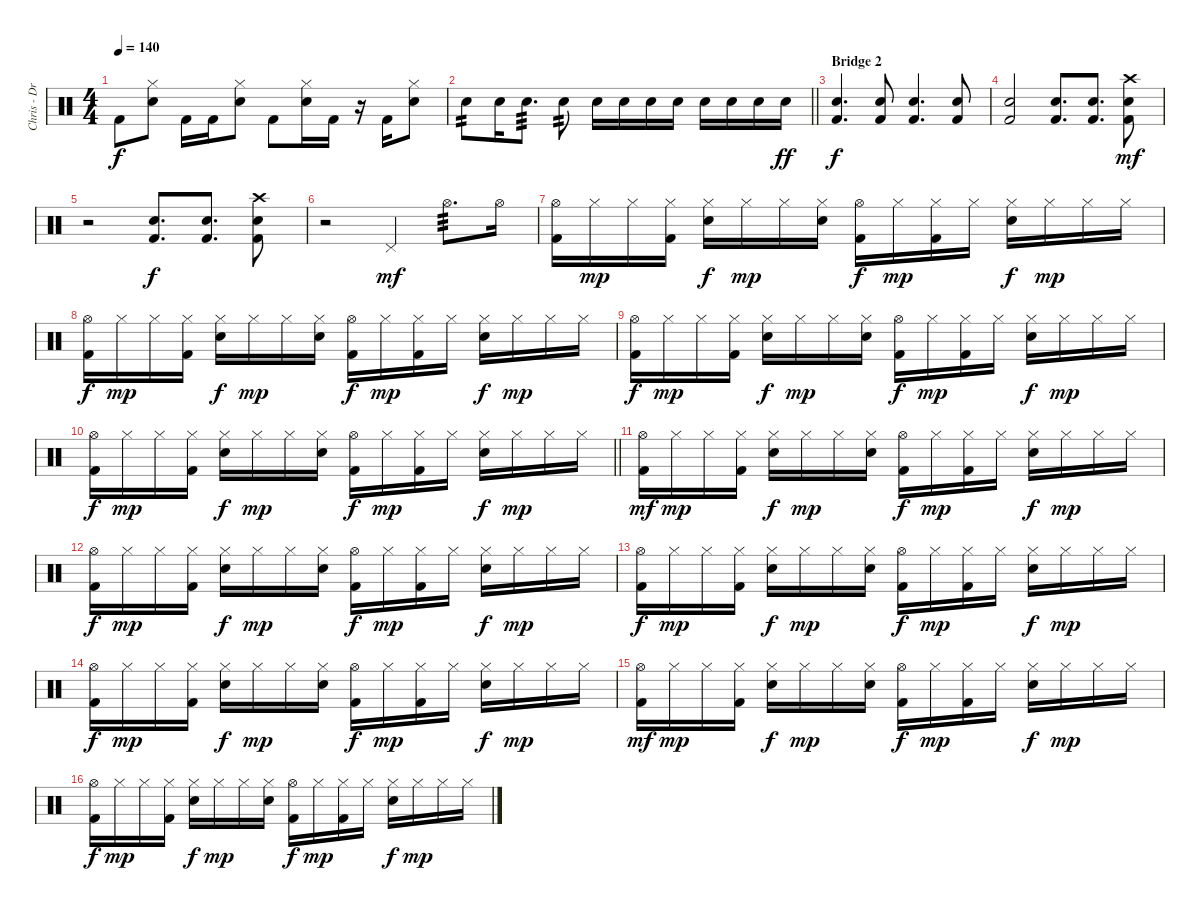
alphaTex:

\track ("Chris - Drums" "Chris - Dr") {instrument percussion}
\staff {score}
\articulation defaults
\ts (4 4)
\tempo 140
\clef neutral
\ks c "Kick (hit) 2".8{dy f}
("Hi-Hat (closed)" "Electric Snare (hit)").8 "Kick (hit) 2".16 "Kick (hit) 2".16 ("Hi-Hat (closed)" "Electric Snare (hit)").8 "Kick (hit) 2".8 ("Hi-Hat (closed)" "Electric Snare (hit)").16 "Kick (hit) 2".16 r.16 "Kick (hit) 2".16 ("Hi-Hat (closed)" "Electric Snare (hit)").8 |
\barLineRight lightlight "Electric Snare (hit)".8{tp 2 volume 12} "Electric Snare (hit)".16 "Electric Snare (hit)".8{d tp 3} "Electric Snare (hit)".8{tp 2} "Electric Snare (hit)".16 "Electric Snare (hit)".16 "Electric Snare (hit)".16 "Electric Snare (hit)".16 "Electric Snare (hit)".16 "Electric Snare (hit)".16 "Electric Snare (hit)".16 "Electric Snare (hit)".16{dy ff}
|
\section ("" "Bridge 2")
("Electric Snare (hit)" "Kick (hit) 2").4{d dy f volume 14} ("Electric Snare (hit)" "Kick (hit) 2").8 ("Electric Snare (hit)" "Kick (hit) 2").4{d} ("Electric Snare (hit)" "Kick (hit) 2").8 |
("Electric Snare (hit)" "Kick (hit) 2").2 ("Electric Snare (hit)" "Kick (hit) 2").8{d} ("Electric Snare (hit)" "Kick (hit) 2").8{d} ("Crash high (hit)" "Electric Snare (hit)" "Kick (hit) 2").8{dy mf} |
r.2 ("Electric Snare (hit)" "Kick (hit) 2").8{d dy f} ("Electric Snare (hit)" "Kick (hit) 2").8{d} ("Crash high (hit)" "Electric Snare (hit)" "Kick (hit) 2").8 |
r.2 "Pedal Hi-Hat (hit)".4{dy mf} "Hi-Hat (open)".8{d tp 3} "Hi-Hat (open)".16 |
("Hi-Hat (open)" "Kick (hit) 2").16 "Hi-Hat (closed)".16{dy mp} "Hi-Hat (closed)".16 ("Hi-Hat (closed)" "Kick (hit) 2").16 ("Hi-Hat (closed)" "Electric Snare (hit)").16{dy f} "Hi-Hat (closed)".16{dy mp} "Hi-Hat (closed)".16 ("Hi-Hat (closed)" "Electric Snare (hit)").16 ("Hi-Hat (open)" "Kick (hit) 2").16{dy f} "Hi-Hat (closed)".16{dy mp} ("Hi-Hat (closed)" "Kick (hit) 2").16 "Hi-Hat (closed)".16 ("Hi-Hat (closed)" "Electric Snare (hit)").16{dy f} "Hi-Hat (closed)".16{dy mp} "Hi-Hat (closed)".16 "Hi-Hat (closed)".16 |
("Hi-Hat (open)" "Kick (hit) 2").16{dy f} "Hi-Hat (closed)".16{dy mp} "Hi-Hat (closed)".16 ("Hi-Hat (closed)" "Kick (hit) 2").16 ("Hi-Hat (closed)" "Electric Snare (hit)").16{dy f} "Hi-Hat (closed)".16{dy mp} "Hi-Hat (closed)".16 ("Hi-Hat (closed)" "Electric Snare (hit)").16 ("Hi-Hat (open)" "Kick (hit) 2").16{dy f} "Hi-Hat (closed)".16{dy mp} ("Hi-Hat (closed)" "Kick (hit) 2").16 "Hi-Hat (closed)".16 ("Hi-Hat (closed)" "Electric Snare (hit)").16{dy f} "Hi-Hat (closed)".16{dy mp} "Hi-Hat (closed)".16 "Hi-Hat (closed)".16 |
("Hi-Hat (open)" "Kick (hit) 2").16{dy f} "Hi-Hat (closed)".16{dy mp} "Hi-Hat (closed)".16 ("Hi-Hat (closed)" "Kick (hit) 2").16 ("Hi-Hat (closed)" "Electric Snare (hit)").16{dy f} "Hi-Hat (closed)".16{dy mp} "Hi-Hat (closed)".16 ("Hi-Hat (closed)" "Electric Snare (hit)").16 ("Hi-Hat (open)" "Kick (hit) 2").16{dy f} "Hi-Hat (closed)".16{dy mp} ("Hi-Hat (closed)" "Kick (hit) 2").16 "Hi-Hat (closed)".16 ("Hi-Hat (closed)" "Electric Snare (hit)").16{dy f} "Hi-Hat (closed)".16{dy mp} "Hi-Hat (closed)".16 "Hi-Hat (closed)".16 |
\barLineRight lightlight
("Hi-Hat (open)" "Kick (hit) 2").16{dy f} "Hi-Hat (closed)".16{dy mp} "Hi-Hat (closed)".16 ("Hi-Hat (closed)" "Kick (hit) 2").16 ("Hi-Hat (closed)" "Electric Snare (hit)").16{dy f} "Hi-Hat (closed)".16{dy mp} "Hi-Hat (closed)".16 ("Hi-Hat (closed)" "Electric Snare (hit)").16 ("Hi-Hat (open)" "Kick (hit) 2").16{dy f} "Hi-Hat (closed)".16{dy mp} ("Hi-Hat (closed)" "Kick (hit) 2").16 "Hi-Hat (closed)".16 ("Hi-Hat (closed)" "Electric Snare (hit)").16{dy f} "Hi-Hat (closed)".16{dy mp} "Hi-Hat (closed)".16 "Hi-Hat (closed)".16 |
("Hi-Hat (open)" "Kick (hit) 2").16{dy mf} "Hi-Hat (closed)".16{dy mp} "Hi-Hat (closed)".16 ("Hi-Hat (closed)" "Kick (hit) 2").16 ("Hi-Hat (closed)" "Electric Snare (hit)").16{dy f} "Hi-Hat (closed)".16{dy mp} "Hi-Hat (closed)".16 ("Hi-Hat (closed)" "Electric Snare (hit)").16 ("Hi-Hat (open)" "Kick (hit) 2").16{dy f} "Hi-Hat (closed)".16{dy mp} ("Hi-Hat (closed)" "Kick (hit) 2").16 "Hi-Hat (closed)".16 ("Hi-Hat (closed)" "Electric Snare (hit)").16{dy f} "Hi-Hat (closed)".16{dy mp} "Hi-Hat (closed)".16 "Hi-Hat (closed)".16 |
("Hi-Hat (open)" "Kick (hit) 2").16{dy f} "Hi-Hat (closed)".16{dy mp} "Hi-Hat (closed)".16 ("Hi-Hat (closed)" "Kick (hit) 2").16 ("Hi-Hat (closed)" "Electric Snare (hit)").16{dy f} "Hi-Hat (closed)".16{dy mp} "Hi-Hat (closed)".16 ("Hi-Hat (closed)" "Electric Snare (hit)").16 ("Hi-Hat (open)" "Kick (hit) 2").16{dy f} "Hi-Hat (closed)".16{dy mp} ("Hi-Hat (closed)" "Kick (hit) 2").16 "Hi-Hat (closed)".16 ("Hi-Hat (closed)" "Electric Snare (hit)").16{dy f} "Hi-Hat (closed)".16{dy mp} "Hi-Hat (closed)".16 "Hi-Hat (closed)".16 |
("Hi-Hat (open)" "Kick (hit) 2").16{dy f} "Hi-Hat (closed)".16{dy mp} "Hi-Hat (closed)".16 ("Hi-Hat (closed)" "Kick (hit) 2").16 ("Hi-Hat (closed)" "Electric Snare (hit)").16{dy f} "Hi-Hat (closed)".16{dy mp} "Hi-Hat (closed)".16 ("Hi-Hat (closed)" "Electric Snare (hit)").16 ("Hi-Hat (open)" "Kick (hit) 2").16{dy f} "Hi-Hat (closed)".16{dy mp} ("Hi-Hat (closed)" "Kick (hit) 2").16 "Hi-Hat (closed)".16 ("Hi-Hat (closed)" "Electric Snare (hit)").16{dy f} "Hi-Hat (closed)".16{dy mp} "Hi-Hat (closed)".16 "Hi-Hat (closed)".16 |
("Hi-Hat (open)" "Kick (hit) 2").16{dy f} "Hi-Hat (closed)".16{dy mp} "Hi-Hat (closed)".16 ("Hi-Hat (closed)" "Kick (hit) 2").16 ("Hi-Hat (closed)" "Electric Snare (hit)").16{dy f} "Hi-Hat (closed)".16{dy mp} "Hi-Hat (closed)".16 ("Hi-Hat (closed)" "Electric Snare (hit)").16 ("Hi-Hat (open)" "Kick (hit) 2").16{dy f} "Hi-Hat (closed)".16{dy mp} ("Hi-Hat (closed)" "Kick (hit) 2").16 "Hi-Hat (closed)".16 ("Hi-Hat (closed)" "Electric Snare (hit)").16{dy f} "Hi-Hat (closed)".16{dy mp} "Hi-Hat (closed)".16 "Hi-Hat (closed)".16 |
("Hi-Hat (open)" "Kick (hit) 2").16{dy mf} "Hi-Hat (closed)".16{dy mp} "Hi-Hat (closed)".16 ("Hi-Hat (closed)" "Kick (hit) 2").16 ("Hi-Hat (closed)" "Electric Snare (hit)").16{dy f} "Hi-Hat (closed)".16{dy mp} "Hi-Hat (closed)".16 ("Hi-Hat (closed)" "Electric Snare (hit)").16 ("Hi-Hat (open)" "Kick (hit) 2").16{dy f} "Hi-Hat (closed)".16{dy mp} ("Hi-Hat (closed)" "Kick (hit) 2").16 "Hi-Hat (closed)".16 ("Hi-Hat (closed)" "Electric Snare (hit)").16{dy f} "Hi-Hat (closed)".16{dy mp} "Hi-Hat (closed)".16 "Hi-Hat (closed)".16 |
("Hi-Hat (open)" "Kick (hit) 2").16{dy f} "Hi-Hat (closed)".16{dy mp} "Hi-Hat (closed)".16 ("Hi-Hat (closed)" "Kick (hit) 2").16 ("Hi-Hat (closed)" "Electric Snare (hit)").16{dy f} "Hi-Hat (closed)".16{dy mp} "Hi-Hat (closed)".16 ("Hi-Hat (closed)" "Electric Snare (hit)").16 ("Hi-Hat (open)" "Kick (hit) 2").16{dy f} "Hi-Hat (closed)".16{dy mp} ("Hi-Hat (closed)" "Kick (hit) 2").16 "Hi-Hat (closed)".16 ("Hi-Hat (closed)" "Electric Snare (hit)").16{dy f} "Hi-Hat (closed)".16{dy mp} "Hi-Hat (closed)".16 "Hi-Hat (closed)".16
